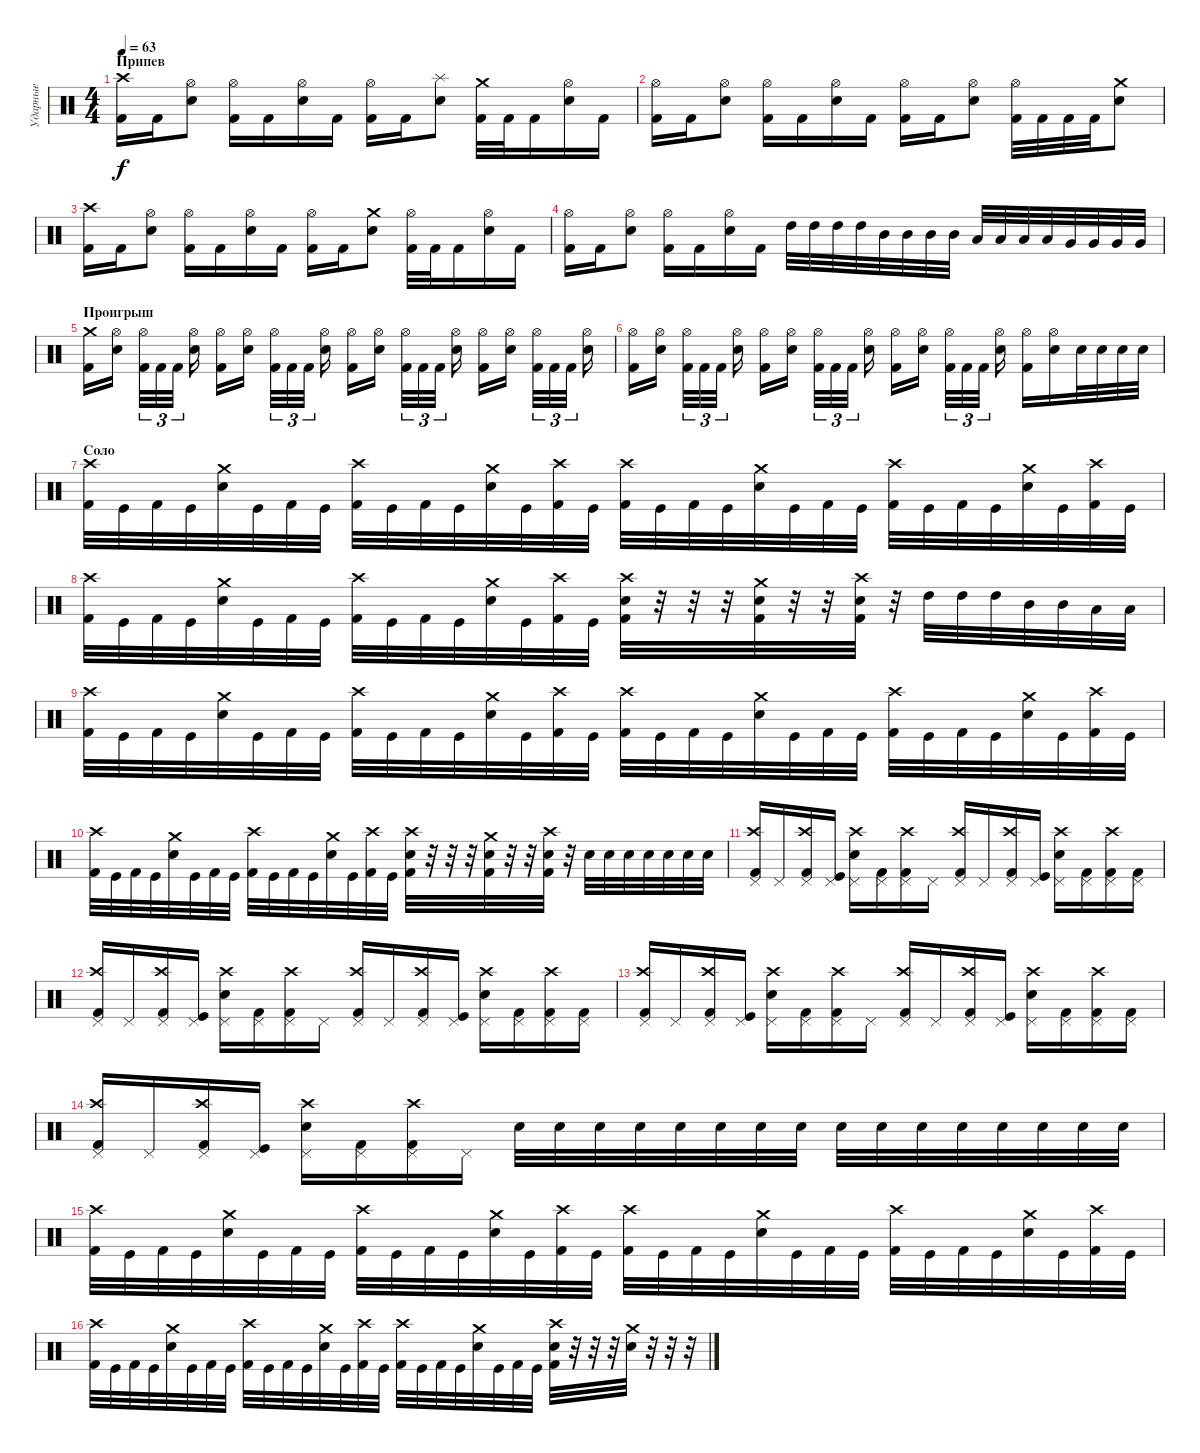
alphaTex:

\track ("Ударные" "Ударные") {instrument percussion}
\staff {score}
\articulation defaults
\ts (4 4)
\section ("" "Припев")
\tempo 63
\clef neutral
\ks c
("Kick (hit) 2" "Crash high (hit)").16{dy f} "Kick (hit) 2".16 ("Snare (hit) 2" "Hi-Hat (open)").8 ("Kick (hit) 2" "Hi-Hat (open)").16 "Kick (hit) 2".16 ("Snare (hit) 2" "Hi-Hat (open)").16 "Kick (hit) 2".16 ("Kick (hit) 2" "Hi-Hat (open)").16 "Kick (hit) 2".16 ("Snare (hit) 2" "Splash (hit)").8 ("Kick (hit) 2" "Crash medium (hit)").32 "Kick (hit) 2".32 "Kick (hit) 2".16 ("Snare (hit) 2" "Hi-Hat (open)").16 "Kick (hit) 2".16 |
("Kick (hit) 2" "Hi-Hat (open)").16 "Kick (hit) 2".16 ("Snare (hit) 2" "Hi-Hat (open)").8 ("Kick (hit) 2" "Hi-Hat (open)").16 "Kick (hit) 2".16 ("Snare (hit) 2" "Hi-Hat (open)").16 "Kick (hit) 2".16 ("Kick (hit) 2" "Hi-Hat (open)").16 "Kick (hit) 2".16 ("Snare (hit) 2" "Hi-Hat (open)").8 ("Kick (hit) 2" "Hi-Hat (open)").32 "Kick (hit) 2".32 "Kick (hit) 2".32 "Kick (hit) 2".32 ("Snare (hit) 2" "Crash medium (hit)").8 |
("Kick (hit) 2" "Crash high (hit)").16 "Kick (hit) 2".16 ("Snare (hit) 2" "Hi-Hat (open)").8 ("Kick (hit) 2" "Hi-Hat (open)").16 "Kick (hit) 2".16 ("Snare (hit) 2" "Hi-Hat (open)").16 "Kick (hit) 2".16 ("Kick (hit) 2" "Hi-Hat (open)").16 "Kick (hit) 2".16 ("Snare (hit) 2" "Crash medium (hit)").8 ("Kick (hit) 2" "Hi-Hat (open)").32 "Kick (hit) 2".32 "Kick (hit) 2".16 ("Snare (hit) 2" "Hi-Hat (open)").16 "Kick (hit) 2".16 |
("Kick (hit) 2" "Hi-Hat (open)").16 "Kick (hit) 2".16 ("Snare (hit) 2" "Hi-Hat (open)").8 ("Kick (hit) 2" "Hi-Hat (open)").16 "Kick (hit) 2".16 ("Snare (hit) 2" "Hi-Hat (open)").16 "Kick (hit) 2".16 "High Tom (hit)".32 "High Tom (hit)".32 "High Tom (hit)".32 "High Tom (hit)".32 "Mid Tom (hit)".32 "Mid Tom (hit)".32 "Mid Tom (hit)".32 "Mid Tom (hit)".32 "Low Tom (hit)".32 "Low Tom (hit)".32 "Low Tom (hit)".32 "Low Tom (hit)".32 "Very Low Tom (hit)".32 "Very Low Tom (hit)".32 "Very Low Tom (hit)".32 "Very Low Tom (hit)".32 |
\section ("" "Проигрыш")
("Kick (hit) 2" "Crash medium (hit)").16 ("Snare (hit) 2" "Hi-Hat (open)").16 ("Kick (hit) 2" "Hi-Hat (open)").32{tu (3 2)} "Kick (hit) 2".32{tu (3 2)} "Kick (hit) 2".32{tu (3 2)} ("Snare (hit) 2" "Hi-Hat (open)").16 ("Kick (hit) 2" "Hi-Hat (open)").16 ("Snare (hit) 2" "Hi-Hat (open)").16 ("Kick (hit) 2" "Hi-Hat (open)").32{tu (3 2)} "Kick (hit) 2".32{tu (3 2)} "Kick (hit) 2".32{tu (3 2)} ("Snare (hit) 2" "Hi-Hat (open)").16 ("Kick (hit) 2" "Hi-Hat (open)").16 ("Snare (hit) 2" "Hi-Hat (open)").16 ("Kick (hit) 2" "Hi-Hat (open)").32{tu (3 2)} "Kick (hit) 2".32{tu (3 2)} "Kick (hit) 2".32{tu (3 2)} ("Snare (hit) 2" "Hi-Hat (open)").16 ("Kick (hit) 2" "Hi-Hat (open)").16 ("Snare (hit) 2" "Hi-Hat (open)").16 ("Kick (hit) 2" "Hi-Hat (open)").32{tu (3 2)} "Kick (hit) 2".32{tu (3 2)} "Kick (hit) 2".32{tu (3 2)} ("Snare (hit) 2" "Hi-Hat (open)").16 |
("Kick (hit) 2" "Hi-Hat (open)").16 ("Snare (hit) 2" "Hi-Hat (open)").16 ("Kick (hit) 2" "Hi-Hat (open)").32{tu (3 2)} "Kick (hit) 2".32{tu (3 2)} "Kick (hit) 2".32{tu (3 2)} ("Snare (hit) 2" "Hi-Hat (open)").16 ("Kick (hit) 2" "Hi-Hat (open)").16 ("Snare (hit) 2" "Hi-Hat (open)").16 ("Kick (hit) 2" "Hi-Hat (open)").32{tu (3 2)} "Kick (hit) 2".32{tu (3 2)} "Kick (hit) 2".32{tu (3 2)} ("Snare (hit) 2" "Hi-Hat (open)").16 ("Kick (hit) 2" "Hi-Hat (open)").16 ("Snare (hit) 2" "Hi-Hat (open)").16 ("Kick (hit) 2" "Hi-Hat (open)").32{tu (3 2)} "Kick (hit) 2".32{tu (3 2)} "Kick (hit) 2".32{tu (3 2)} ("Snare (hit) 2" "Hi-Hat (open)").16 ("Kick (hit) 2" "Hi-Hat (open)").16 ("Snare (hit) 2" "Hi-Hat (open)").16 "Snare (hit) 2".32 "Snare (hit) 2".32 "Snare (hit) 2".32 "Snare (hit) 2".32 |
\section ("" "Соло")
("Kick (hit) 2" "Crash high (hit)").32 "Kick (hit)".32 "Kick (hit) 2".32 "Kick (hit)".32 ("Snare (hit) 2" "Crash medium (hit)").32 "Kick (hit)".32 "Kick (hit) 2".32 "Kick (hit)".32 ("Kick (hit) 2" "Crash high (hit)").32 "Kick (hit)".32 "Kick (hit) 2".32 "Kick (hit)".32 ("Snare (hit) 2" "Crash medium (hit)").32 "Kick (hit)".32 ("Kick (hit) 2" "Crash high (hit)").32 "Kick (hit)".32 ("Kick (hit) 2" "Crash high (hit)").32 "Kick (hit)".32 "Kick (hit) 2".32 "Kick (hit)".32 ("Snare (hit) 2" "Crash medium (hit)").32 "Kick (hit)".32 "Kick (hit) 2".32 "Kick (hit)".32 ("Kick (hit) 2" "Crash high (hit)").32 "Kick (hit)".32 "Kick (hit) 2".32 "Kick (hit)".32 ("Snare (hit) 2" "Crash medium (hit)").32 "Kick (hit)".32 ("Kick (hit) 2" "Crash high (hit)").32 "Kick (hit)".32 |
("Kick (hit) 2" "Crash high (hit)").32 "Kick (hit)".32 "Kick (hit) 2".32 "Kick (hit)".32 ("Snare (hit) 2" "Crash medium (hit)").32 "Kick (hit)".32 "Kick (hit) 2".32 "Kick (hit)".32 ("Kick (hit) 2" "Crash high (hit)").32 "Kick (hit)".32 "Kick (hit) 2".32 "Kick (hit)".32 ("Snare (hit) 2" "Crash medium (hit)").32 "Kick (hit)".32 ("Kick (hit) 2" "Crash high (hit)").32 "Kick (hit)".32 ("Kick (hit) 2" "Snare (hit) 2" "Crash high (hit)").32 r.32 r.32 r.32 ("Kick (hit) 2" "Snare (hit) 2" "Crash medium (hit)").32 r.32 r.32 ("Kick (hit) 2" "Snare (hit) 2" "Crash high (hit)").32 r.32 "High Tom (hit)".32 "High Tom (hit)".32 "High Tom (hit)".32 "Mid Tom (hit)".32 "Mid Tom (hit)".32 "Low Tom (hit)".32 "Low Tom (hit)".32 |
("Kick (hit) 2" "Crash high (hit)").32 "Kick (hit)".32 "Kick (hit) 2".32 "Kick (hit)".32 ("Snare (hit) 2" "Crash medium (hit)").32 "Kick (hit)".32 "Kick (hit) 2".32 "Kick (hit)".32 ("Kick (hit) 2" "Crash high (hit)").32 "Kick (hit)".32 "Kick (hit) 2".32 "Kick (hit)".32 ("Snare (hit) 2" "Crash medium (hit)").32 "Kick (hit)".32 ("Kick (hit) 2" "Crash high (hit)").32 "Kick (hit)".32 ("Kick (hit) 2" "Crash high (hit)").32 "Kick (hit)".32 "Kick (hit) 2".32 "Kick (hit)".32 ("Snare (hit) 2" "Crash medium (hit)").32 "Kick (hit)".32 "Kick (hit) 2".32 "Kick (hit)".32 ("Kick (hit) 2" "Crash high (hit)").32 "Kick (hit)".32 "Kick (hit) 2".32 "Kick (hit)".32 ("Snare (hit) 2" "Crash medium (hit)").32 "Kick (hit)".32 ("Kick (hit) 2" "Crash high (hit)").32 "Kick (hit)".32 |
("Kick (hit) 2" "Crash high (hit)").32 "Kick (hit)".32 "Kick (hit) 2".32 "Kick (hit)".32 ("Snare (hit) 2" "Crash medium (hit)").32 "Kick (hit)".32 "Kick (hit) 2".32 "Kick (hit)".32 ("Kick (hit) 2" "Crash high (hit)").32 "Kick (hit)".32 "Kick (hit) 2".32 "Kick (hit)".32 ("Snare (hit) 2" "Crash medium (hit)").32 "Kick (hit)".32 ("Kick (hit) 2" "Crash high (hit)").32 "Kick (hit)".32 ("Kick (hit) 2" "Snare (hit) 2" "Crash high (hit)").32 r.32 r.32 r.32 ("Kick (hit) 2" "Snare (hit) 2" "Crash medium (hit)").32 r.32 r.32 ("Kick (hit) 2" "Snare (hit) 2" "Crash high (hit)").32 r.32 "Snare (hit) 2".32 "Snare (hit) 2".32 "Snare (hit) 2".32 "Snare (hit) 2".32 "Snare (hit) 2".32 "Snare (hit) 2".32 "Snare (hit) 2".32 |
("Kick (hit) 2" "Pedal Hi-Hat (hit)" "Crash high (hit)").16 "Pedal Hi-Hat (hit)".16 ("Kick (hit) 2" "Pedal Hi-Hat (hit)" "Crash high (hit)").16 ("Kick (hit)" "Pedal Hi-Hat (hit)").16 ("Snare (hit) 2" "Pedal Hi-Hat (hit)" "Crash high (hit)").16 ("Kick (hit) 2" "Pedal Hi-Hat (hit)").16 ("Kick (hit) 2" "Pedal Hi-Hat (hit)" "Crash high (hit)").16 "Pedal Hi-Hat (hit)".16 ("Kick (hit) 2" "Pedal Hi-Hat (hit)" "Crash high (hit)").16 "Pedal Hi-Hat (hit)".16 ("Kick (hit) 2" "Pedal Hi-Hat (hit)" "Crash high (hit)").16 ("Kick (hit)" "Pedal Hi-Hat (hit)").16 ("Snare (hit) 2" "Pedal Hi-Hat (hit)" "Crash high (hit)").16 ("Kick (hit) 2" "Pedal Hi-Hat (hit)").16 ("Kick (hit) 2" "Pedal Hi-Hat (hit)" "Crash high (hit)").16 ("Kick (hit) 2" "Pedal Hi-Hat (hit)").16 |
("Kick (hit) 2" "Pedal Hi-Hat (hit)" "Crash high (hit)").16 "Pedal Hi-Hat (hit)".16 ("Kick (hit) 2" "Pedal Hi-Hat (hit)" "Crash high (hit)").16 ("Kick (hit)" "Pedal Hi-Hat (hit)").16 ("Snare (hit) 2" "Pedal Hi-Hat (hit)" "Crash high (hit)").16 ("Kick (hit) 2" "Pedal Hi-Hat (hit)").16 ("Kick (hit) 2" "Pedal Hi-Hat (hit)" "Crash high (hit)").16 "Pedal Hi-Hat (hit)".16 ("Kick (hit) 2" "Pedal Hi-Hat (hit)" "Crash high (hit)").16 "Pedal Hi-Hat (hit)".16 ("Kick (hit) 2" "Pedal Hi-Hat (hit)" "Crash high (hit)").16 ("Kick (hit)" "Pedal Hi-Hat (hit)").16 ("Snare (hit) 2" "Pedal Hi-Hat (hit)" "Crash high (hit)").16 ("Kick (hit) 2" "Pedal Hi-Hat (hit)").16 ("Kick (hit) 2" "Pedal Hi-Hat (hit)" "Crash high (hit)").16 ("Kick (hit) 2" "Pedal Hi-Hat (hit)").16 |
("Kick (hit) 2" "Pedal Hi-Hat (hit)" "Crash high (hit)").16 "Pedal Hi-Hat (hit)".16 ("Kick (hit) 2" "Pedal Hi-Hat (hit)" "Crash high (hit)").16 ("Kick (hit)" "Pedal Hi-Hat (hit)").16 ("Snare (hit) 2" "Pedal Hi-Hat (hit)" "Crash high (hit)").16 ("Kick (hit) 2" "Pedal Hi-Hat (hit)").16 ("Kick (hit) 2" "Pedal Hi-Hat (hit)" "Crash high (hit)").16 "Pedal Hi-Hat (hit)".16 ("Kick (hit) 2" "Pedal Hi-Hat (hit)" "Crash high (hit)").16 "Pedal Hi-Hat (hit)".16 ("Kick (hit) 2" "Pedal Hi-Hat (hit)" "Crash high (hit)").16 ("Kick (hit)" "Pedal Hi-Hat (hit)").16 ("Snare (hit) 2" "Pedal Hi-Hat (hit)" "Crash high (hit)").16 ("Kick (hit) 2" "Pedal Hi-Hat (hit)").16 ("Kick (hit) 2" "Pedal Hi-Hat (hit)" "Crash high (hit)").16 ("Kick (hit) 2" "Pedal Hi-Hat (hit)").16 |
("Kick (hit) 2" "Pedal Hi-Hat (hit)" "Crash high (hit)").16 "Pedal Hi-Hat (hit)".16 ("Kick (hit) 2" "Pedal Hi-Hat (hit)" "Crash high (hit)").16 ("Kick (hit)" "Pedal Hi-Hat (hit)").16 ("Snare (hit) 2" "Pedal Hi-Hat (hit)" "Crash high (hit)").16 ("Kick (hit) 2" "Pedal Hi-Hat (hit)").16 ("Kick (hit) 2" "Pedal Hi-Hat (hit)" "Crash high (hit)").16 "Pedal Hi-Hat (hit)".16 "Snare (hit) 2".32 "Snare (hit) 2".32 "Snare (hit) 2".32 "Snare (hit) 2".32 "Snare (hit) 2".32 "Snare (hit) 2".32 "Snare (hit) 2".32 "Snare (hit) 2".32 "Snare (hit) 2".32 "Snare (hit) 2".32 "Snare (hit) 2".32 "Snare (hit) 2".32 "Snare (hit) 2".32 "Snare (hit) 2".32 "Snare (hit) 2".32 "Snare (hit) 2".32 |
("Kick (hit) 2" "Crash high (hit)").32 "Kick (hit)".32 "Kick (hit) 2".32 "Kick (hit)".32 ("Snare (hit) 2" "Crash medium (hit)").32 "Kick (hit)".32 "Kick (hit) 2".32 "Kick (hit)".32 ("Kick (hit) 2" "Crash high (hit)").32 "Kick (hit)".32 "Kick (hit) 2".32 "Kick (hit)".32 ("Snare (hit) 2" "Crash medium (hit)").32 "Kick (hit)".32 ("Kick (hit) 2" "Crash high (hit)").32 "Kick (hit)".32 ("Kick (hit) 2" "Crash high (hit)").32 "Kick (hit)".32 "Kick (hit) 2".32 "Kick (hit)".32 ("Snare (hit) 2" "Crash medium (hit)").32 "Kick (hit)".32 "Kick (hit) 2".32 "Kick (hit)".32 ("Kick (hit) 2" "Crash high (hit)").32 "Kick (hit)".32 "Kick (hit) 2".32 "Kick (hit)".32 ("Snare (hit) 2" "Crash medium (hit)").32 "Kick (hit)".32 ("Kick (hit) 2" "Crash high (hit)").32 "Kick (hit)".32 |
("Kick (hit) 2" "Crash high (hit)").32 "Kick (hit)".32 "Kick (hit) 2".32 "Kick (hit)".32 ("Snare (hit) 2" "Crash medium (hit)").32 "Kick (hit)".32 "Kick (hit) 2".32 "Kick (hit)".32 ("Kick (hit) 2" "Crash high (hit)").32 "Kick (hit)".32 "Kick (hit) 2".32 "Kick (hit)".32 ("Snare (hit) 2" "Crash medium (hit)").32 "Kick (hit)".32 ("Kick (hit) 2" "Crash high (hit)").32 "Kick (hit)".32 ("Kick (hit) 2" "Crash high (hit)").32 "Kick (hit)".32 "Kick (hit) 2".32 "Kick (hit)".32 ("Snare (hit) 2" "Crash medium (hit)").32 "Kick (hit)".32 "Kick (hit) 2".32 "Kick (hit)".32 ("Kick (hit) 2" "Snare (hit) 2" "Crash high (hit)").32 r.32 r.32 r.32 ("Snare (hit) 2" "Crash medium (hit)").32 r.32 r.32 r.32
